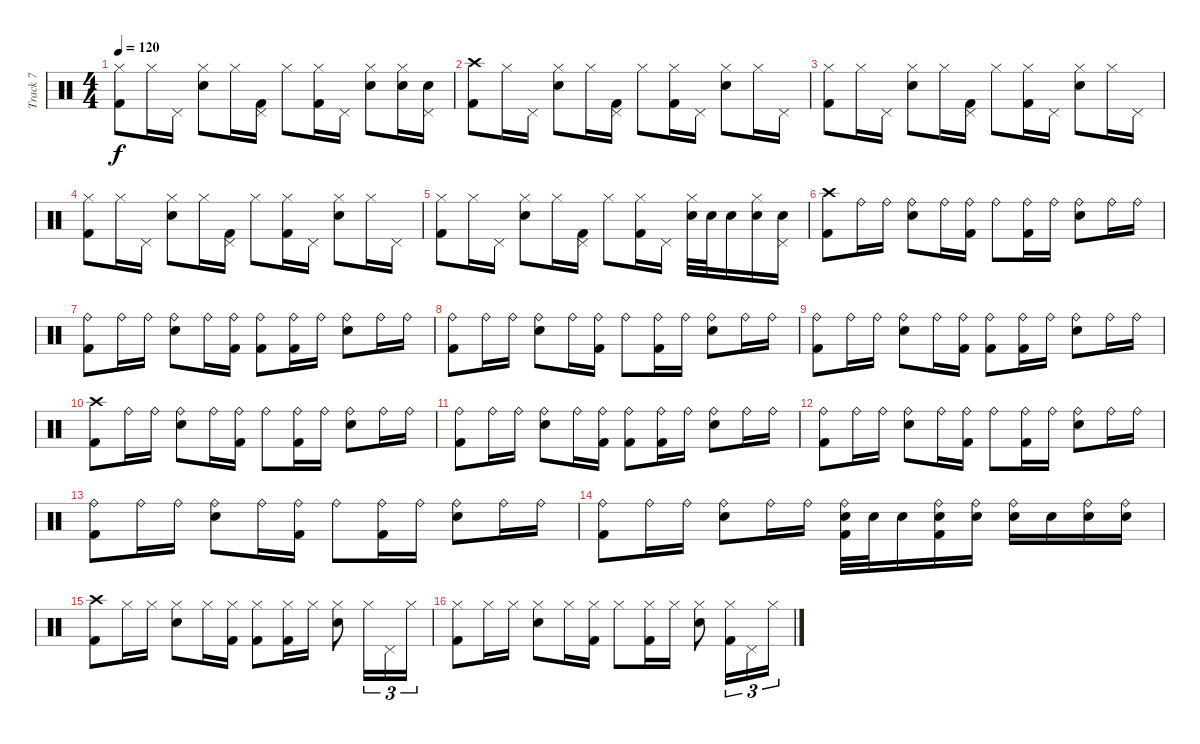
\track ("Track 7" "Track 7") {instrument percussion}
\staff {score}
\articulation defaults
\ts (4 4)
\tempo 120
\clef neutral
\ks c
("Hi-Hat (closed)" "Kick (hit) 2").8{dy f} "Hi-Hat (closed)".16 "Pedal Hi-Hat (hit)".16 ("Hi-Hat (closed)" "Snare (hit) 2").8 "Hi-Hat (closed)".16 ("Pedal Hi-Hat (hit)" "Kick (hit) 2").16 "Hi-Hat (closed)".8 ("Hi-Hat (closed)" "Kick (hit) 2").16 "Pedal Hi-Hat (hit)".16 ("Hi-Hat (closed)" "Snare (hit) 2").8 ("Hi-Hat (closed)" "Snare (hit) 2").16 ("Pedal Hi-Hat (hit)" "Snare (hit) 2").16 |
("Crash high (hit)" "Kick (hit) 2").8 "Hi-Hat (closed)".16 "Pedal Hi-Hat (hit)".16 ("Hi-Hat (closed)" "Snare (hit) 2").8 "Hi-Hat (closed)".16 ("Pedal Hi-Hat (hit)" "Kick (hit) 2").16 "Hi-Hat (closed)".8 ("Hi-Hat (closed)" "Kick (hit) 2").16 "Pedal Hi-Hat (hit)".16 ("Hi-Hat (closed)" "Snare (hit) 2").8 "Hi-Hat (closed)".16 "Pedal Hi-Hat (hit)".16 |
("Hi-Hat (closed)" "Kick (hit) 2").8 "Hi-Hat (closed)".16 "Pedal Hi-Hat (hit)".16 ("Hi-Hat (closed)" "Snare (hit) 2").8 "Hi-Hat (closed)".16 ("Pedal Hi-Hat (hit)" "Kick (hit) 2").16 "Hi-Hat (closed)".8 ("Hi-Hat (closed)" "Kick (hit) 2").16 "Pedal Hi-Hat (hit)".16 ("Hi-Hat (closed)" "Snare (hit) 2").8 "Hi-Hat (closed)".16 "Pedal Hi-Hat (hit)".16 |
("Hi-Hat (closed)" "Kick (hit) 2").8 "Hi-Hat (closed)".16 "Pedal Hi-Hat (hit)".16 ("Hi-Hat (closed)" "Snare (hit) 2").8 "Hi-Hat (closed)".16 ("Pedal Hi-Hat (hit)" "Kick (hit) 2").16 "Hi-Hat (closed)".8 ("Hi-Hat (closed)" "Kick (hit) 2").16 "Pedal Hi-Hat (hit)".16 ("Hi-Hat (closed)" "Snare (hit) 2").8 "Hi-Hat (closed)".16 "Pedal Hi-Hat (hit)".16 |
("Hi-Hat (closed)" "Kick (hit) 2").8 "Hi-Hat (closed)".16 "Pedal Hi-Hat (hit)".16 ("Hi-Hat (closed)" "Snare (hit) 2").8 "Hi-Hat (closed)".16 ("Pedal Hi-Hat (hit)" "Kick (hit) 2").16 "Hi-Hat (closed)".8 ("Hi-Hat (closed)" "Kick (hit) 2").16 "Pedal Hi-Hat (hit)".16 ("Hi-Hat (closed)" "Snare (hit) 2").32 "Snare (hit) 2".32 "Snare (hit) 2".16 ("Hi-Hat (closed)" "Snare (hit) 2").16 ("Pedal Hi-Hat (hit)" "Snare (hit) 2").16 |
("Crash high (hit)" "Kick (hit) 2").8 "Ride (bell)".16 "Ride (bell)".16 ("Ride (bell)" "Snare (hit) 2").8 "Ride (bell)".16 ("Ride (bell)" "Kick (hit) 2").16 "Ride (bell)".8 ("Ride (bell)" "Kick (hit) 2").16 "Ride (bell)".16 ("Ride (bell)" "Snare (hit) 2").8 "Ride (bell)".16 "Ride (bell)".16 |
("Ride (bell)" "Kick (hit) 2").8 "Ride (bell)".16 "Ride (bell)".16 ("Ride (bell)" "Snare (hit) 2").8 "Ride (bell)".16 ("Ride (bell)" "Kick (hit) 2").16 ("Ride (bell)" "Kick (hit) 2").8 ("Ride (bell)" "Kick (hit) 2").16 "Ride (bell)".16 ("Ride (bell)" "Snare (hit) 2").8 "Ride (bell)".16 "Ride (bell)".16 |
("Ride (bell)" "Kick (hit) 2").8 "Ride (bell)".16 "Ride (bell)".16 ("Ride (bell)" "Snare (hit) 2").8 "Ride (bell)".16 ("Ride (bell)" "Kick (hit) 2").16 "Ride (bell)".8 ("Ride (bell)" "Kick (hit) 2").16 "Ride (bell)".16 ("Ride (bell)" "Snare (hit) 2").8 "Ride (bell)".16 "Ride (bell)".16 |
("Ride (bell)" "Kick (hit) 2").8 "Ride (bell)".16 "Ride (bell)".16 ("Ride (bell)" "Snare (hit) 2").8 "Ride (bell)".16 ("Ride (bell)" "Kick (hit) 2").16 ("Ride (bell)" "Kick (hit) 2").8 ("Ride (bell)" "Kick (hit) 2").16 "Ride (bell)".16 ("Ride (bell)" "Snare (hit) 2").8 "Ride (bell)".16 "Ride (bell)".16 |
("Crash high (hit)" "Kick (hit) 2").8 "Ride (bell)".16 "Ride (bell)".16 ("Ride (bell)" "Snare (hit) 2").8 "Ride (bell)".16 ("Ride (bell)" "Kick (hit) 2").16 "Ride (bell)".8 ("Ride (bell)" "Kick (hit) 2").16 "Ride (bell)".16 ("Ride (bell)" "Snare (hit) 2").8 "Ride (bell)".16 "Ride (bell)".16 |
("Ride (bell)" "Kick (hit) 2").8 "Ride (bell)".16 "Ride (bell)".16 ("Ride (bell)" "Snare (hit) 2").8 "Ride (bell)".16 ("Ride (bell)" "Kick (hit) 2").16 ("Ride (bell)" "Kick (hit) 2").8 ("Ride (bell)" "Kick (hit) 2").16 "Ride (bell)".16 ("Ride (bell)" "Snare (hit) 2").8 "Ride (bell)".16 "Ride (bell)".16 |
("Ride (bell)" "Kick (hit) 2").8 "Ride (bell)".16 "Ride (bell)".16 ("Ride (bell)" "Snare (hit) 2").8 "Ride (bell)".16 ("Ride (bell)" "Kick (hit) 2").16 "Ride (bell)".8 ("Ride (bell)" "Kick (hit) 2").16 "Ride (bell)".16 ("Ride (bell)" "Snare (hit) 2").8 "Ride (bell)".16 "Ride (bell)".16 |
("Ride (bell)" "Kick (hit) 2").8 "Ride (bell)".16 "Ride (bell)".16 ("Ride (bell)" "Snare (hit) 2").8 "Ride (bell)".16 ("Ride (bell)" "Kick (hit) 2").16 "Ride (bell)".8 ("Ride (bell)" "Kick (hit) 2").16 "Ride (bell)".16 ("Ride (bell)" "Snare (hit) 2").8 "Ride (bell)".16 "Ride (bell)".16 |
("Ride (bell)" "Kick (hit) 2").8 "Ride (bell)".16 "Ride (bell)".16 ("Ride (bell)" "Snare (hit) 2").8 "Ride (bell)".16 "Ride (bell)".16 ("Ride (bell)" "Snare (hit) 2" "Kick (hit) 2").32 "Snare (hit) 2".32 "Snare (hit) 2".16 ("Ride (bell)" "Snare (hit) 2" "Kick (hit) 2").16 ("Ride (bell)" "Snare (hit) 2").16 ("Ride (bell)" "Snare (hit) 2").16 "Snare (hit) 2".16 ("Ride (bell)" "Snare (hit) 2").16 ("Ride (bell)" "Snare (hit) 2").16 |
("Crash high (hit)" "Kick (hit) 2").8 "Hi-Hat (closed)".16 "Hi-Hat (closed)".16 ("Hi-Hat (closed)" "Snare (hit) 2").8 "Hi-Hat (closed)".16 ("Hi-Hat (closed)" "Kick (hit) 2").16 ("Hi-Hat (closed)" "Kick (hit) 2").8 ("Hi-Hat (closed)" "Kick (hit) 2").16 "Hi-Hat (closed)".16 ("Hi-Hat (closed)" "Snare (hit) 2").8 "Hi-Hat (closed)".16{tu (3 2)} "Pedal Hi-Hat (hit)".16{tu (3 2)} "Hi-Hat (closed)".16{tu (3 2)} |
("Hi-Hat (closed)" "Kick (hit) 2").8 "Hi-Hat (closed)".16 "Hi-Hat (closed)".16 ("Hi-Hat (closed)" "Snare (hit) 2").8 "Hi-Hat (closed)".16 ("Hi-Hat (closed)" "Kick (hit) 2").16 "Hi-Hat (closed)".8 ("Hi-Hat (closed)" "Kick (hit) 2").16 "Hi-Hat (closed)".16 ("Hi-Hat (closed)" "Snare (hit) 2").8 ("Hi-Hat (closed)" "Kick (hit) 2").16{tu (3 2)} "Pedal Hi-Hat (hit)".16{tu (3 2)} "Hi-Hat (closed)".16{tu (3 2)}
